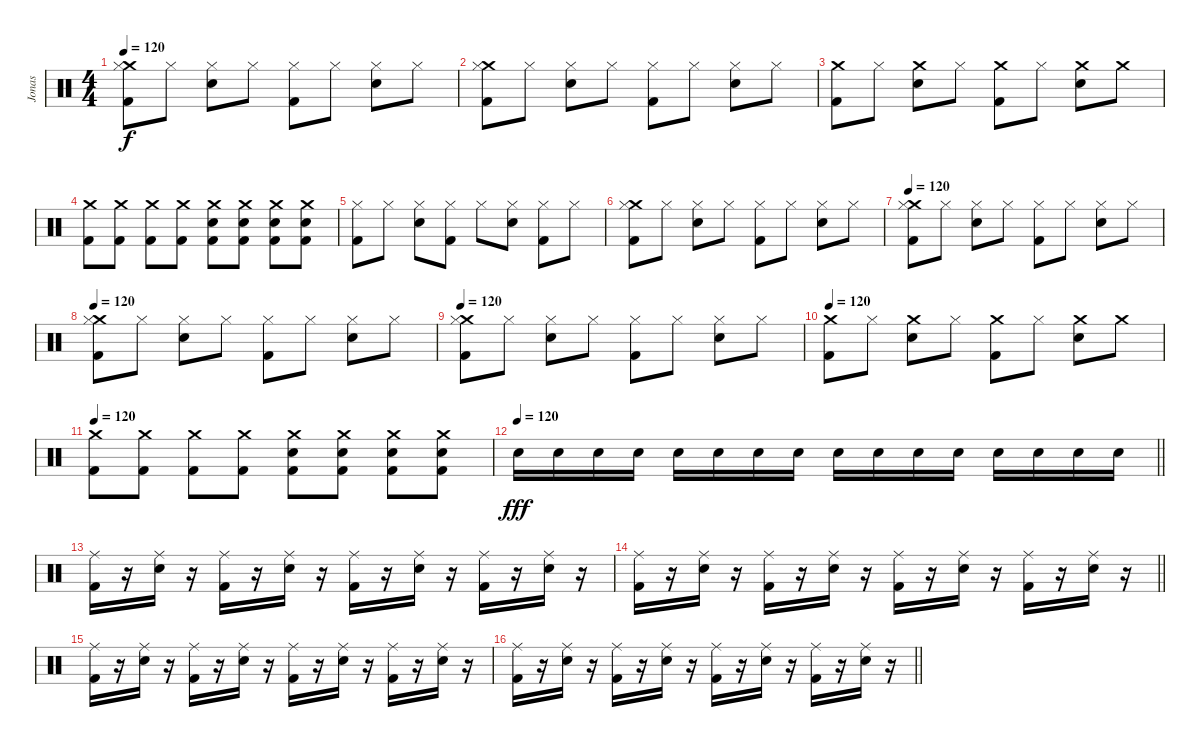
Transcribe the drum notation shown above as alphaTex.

\track ("Jonas" "Jonas") {instrument percussion}
\staff {score}
\articulation defaults
\ts (4 4)
\tempo 120
\clef neutral
\ks c
("Crash medium (hit)" "Hi-Hat (closed)" "Kick (hit) 2").8{dy f} "Hi-Hat (closed)".8 ("Hi-Hat (closed)" "Snare (hit) 2").8 "Hi-Hat (closed)".8 ("Hi-Hat (closed)" "Kick (hit) 2").8 "Hi-Hat (closed)".8 ("Hi-Hat (closed)" "Snare (hit) 2").8 "Hi-Hat (closed)".8 |
("Crash medium (hit)" "Hi-Hat (closed)" "Kick (hit) 2").8 "Hi-Hat (closed)".8 ("Hi-Hat (closed)" "Snare (hit) 2").8 "Hi-Hat (closed)".8 ("Hi-Hat (closed)" "Kick (hit) 2").8 "Hi-Hat (closed)".8 ("Hi-Hat (closed)" "Snare (hit) 2").8 "Hi-Hat (closed)".8 |
("Crash medium (hit)" "Kick (hit) 2").8 "Hi-Hat (closed)".8 ("Crash medium (hit)" "Snare (hit) 2").8 "Hi-Hat (closed)".8 ("Crash medium (hit)" "Kick (hit) 2").8 "Hi-Hat (closed)".8 ("Crash medium (hit)" "Snare (hit) 2").8 "Crash medium (hit)".8 |
("Crash medium (hit)" "Kick (hit) 2").8 ("Crash medium (hit)" "Kick (hit) 2").8 ("Crash medium (hit)" "Kick (hit) 2").8 ("Crash medium (hit)" "Kick (hit) 2").8 ("Crash medium (hit)" "Snare (hit) 2" "Kick (hit) 2").8 ("Crash medium (hit)" "Snare (hit) 2" "Kick (hit) 2").8 ("Crash medium (hit)" "Snare (hit) 2" "Kick (hit) 2").8 ("Crash medium (hit)" "Snare (hit) 2" "Kick (hit) 2").8 |
("Hi-Hat (closed)" "Kick (hit) 2").8 "Hi-Hat (closed)".8 ("Hi-Hat (closed)" "Snare (hit) 2").8 ("Hi-Hat (closed)" "Kick (hit) 2").8 "Hi-Hat (closed)".8 ("Hi-Hat (closed)" "Snare (hit) 2").8 ("Hi-Hat (closed)" "Kick (hit) 2").8 "Hi-Hat (closed)".8 |
("Crash medium (hit)" "Hi-Hat (closed)" "Kick (hit) 2").8 "Hi-Hat (closed)".8 ("Hi-Hat (closed)" "Snare (hit) 2").8 "Hi-Hat (closed)".8 ("Hi-Hat (closed)" "Kick (hit) 2").8 "Hi-Hat (closed)".8 ("Hi-Hat (closed)" "Snare (hit) 2").8 "Hi-Hat (closed)".8 |
\tempo 120
("Crash medium (hit)" "Hi-Hat (closed)" "Kick (hit) 2").8 "Hi-Hat (closed)".8 ("Hi-Hat (closed)" "Snare (hit) 2").8 "Hi-Hat (closed)".8 ("Hi-Hat (closed)" "Kick (hit) 2").8 "Hi-Hat (closed)".8 ("Hi-Hat (closed)" "Snare (hit) 2").8 "Hi-Hat (closed)".8 |
\tempo 120
("Crash medium (hit)" "Hi-Hat (closed)" "Kick (hit) 2").8 "Hi-Hat (closed)".8 ("Hi-Hat (closed)" "Snare (hit) 2").8 "Hi-Hat (closed)".8 ("Hi-Hat (closed)" "Kick (hit) 2").8 "Hi-Hat (closed)".8 ("Hi-Hat (closed)" "Snare (hit) 2").8 "Hi-Hat (closed)".8 |
\tempo 120
("Crash medium (hit)" "Hi-Hat (closed)" "Kick (hit) 2").8 "Hi-Hat (closed)".8 ("Hi-Hat (closed)" "Snare (hit) 2").8 "Hi-Hat (closed)".8 ("Hi-Hat (closed)" "Kick (hit) 2").8 "Hi-Hat (closed)".8 ("Hi-Hat (closed)" "Snare (hit) 2").8 "Hi-Hat (closed)".8 |
\tempo 120
("Crash medium (hit)" "Kick (hit) 2").8 "Hi-Hat (closed)".8 ("Crash medium (hit)" "Snare (hit) 2").8 "Hi-Hat (closed)".8 ("Crash medium (hit)" "Kick (hit) 2").8 "Hi-Hat (closed)".8 ("Crash medium (hit)" "Snare (hit) 2").8 "Crash medium (hit)".8 |
\tempo 120
("Crash medium (hit)" "Kick (hit) 2").8 ("Crash medium (hit)" "Kick (hit) 2").8 ("Crash medium (hit)" "Kick (hit) 2").8 ("Crash medium (hit)" "Kick (hit) 2").8 ("Crash medium (hit)" "Snare (hit) 2" "Kick (hit) 2").8 ("Crash medium (hit)" "Snare (hit) 2" "Kick (hit) 2").8 ("Crash medium (hit)" "Snare (hit) 2" "Kick (hit) 2").8 ("Crash medium (hit)" "Snare (hit) 2" "Kick (hit) 2").8 |
\tempo 120
\barLineRight lightlight "Snare (hit) 2".16{dy fff} "Snare (hit) 2".16 "Snare (hit) 2".16 "Snare (hit) 2".16 "Snare (hit) 2".16 "Snare (hit) 2".16 "Snare (hit) 2".16 "Snare (hit) 2".16 "Snare (hit) 2".16 "Snare (hit) 2".16 "Snare (hit) 2".16 "Snare (hit) 2".16 "Snare (hit) 2".16 "Snare (hit) 2".16 "Snare (hit) 2".16 "Snare (hit) 2".16
|
("Ride (middle)" "Kick (hit) 2").16 r.16 ("Ride (middle)" "Snare (hit) 2").16 r.16 ("Ride (middle)" "Kick (hit) 2").16 r.16 ("Ride (middle)" "Snare (hit) 2").16 r.16 ("Ride (middle)" "Kick (hit) 2").16 r.16 ("Ride (middle)" "Snare (hit) 2").16 r.16 ("Ride (middle)" "Kick (hit) 2").16 r.16 ("Ride (middle)" "Snare (hit) 2").16 r.16 |
\barLineRight lightlight
("Ride (middle)" "Kick (hit) 2").16 r.16 ("Ride (middle)" "Snare (hit) 2").16 r.16 ("Ride (middle)" "Kick (hit) 2").16 r.16 ("Ride (middle)" "Snare (hit) 2").16 r.16 ("Ride (middle)" "Kick (hit) 2").16 r.16 ("Ride (middle)" "Snare (hit) 2").16 r.16 ("Ride (middle)" "Kick (hit) 2").16 r.16 ("Ride (middle)" "Snare (hit) 2").16 r.16 |
("Ride (middle)" "Kick (hit) 2").16 r.16 ("Ride (middle)" "Snare (hit) 2").16 r.16 ("Ride (middle)" "Kick (hit) 2").16 r.16 ("Ride (middle)" "Snare (hit) 2").16 r.16 ("Ride (middle)" "Kick (hit) 2").16 r.16 ("Ride (middle)" "Snare (hit) 2").16 r.16 ("Ride (middle)" "Kick (hit) 2").16 r.16 ("Ride (middle)" "Snare (hit) 2").16 r.16 |
\barLineRight lightlight
("Ride (middle)" "Kick (hit) 2").16 r.16 ("Ride (middle)" "Snare (hit) 2").16 r.16 ("Ride (middle)" "Kick (hit) 2").16 r.16 ("Ride (middle)" "Snare (hit) 2").16 r.16 ("Ride (middle)" "Kick (hit) 2").16 r.16 ("Ride (middle)" "Snare (hit) 2").16 r.16 ("Ride (middle)" "Kick (hit) 2").16 r.16 ("Ride (middle)" "Snare (hit) 2").16 r.16
